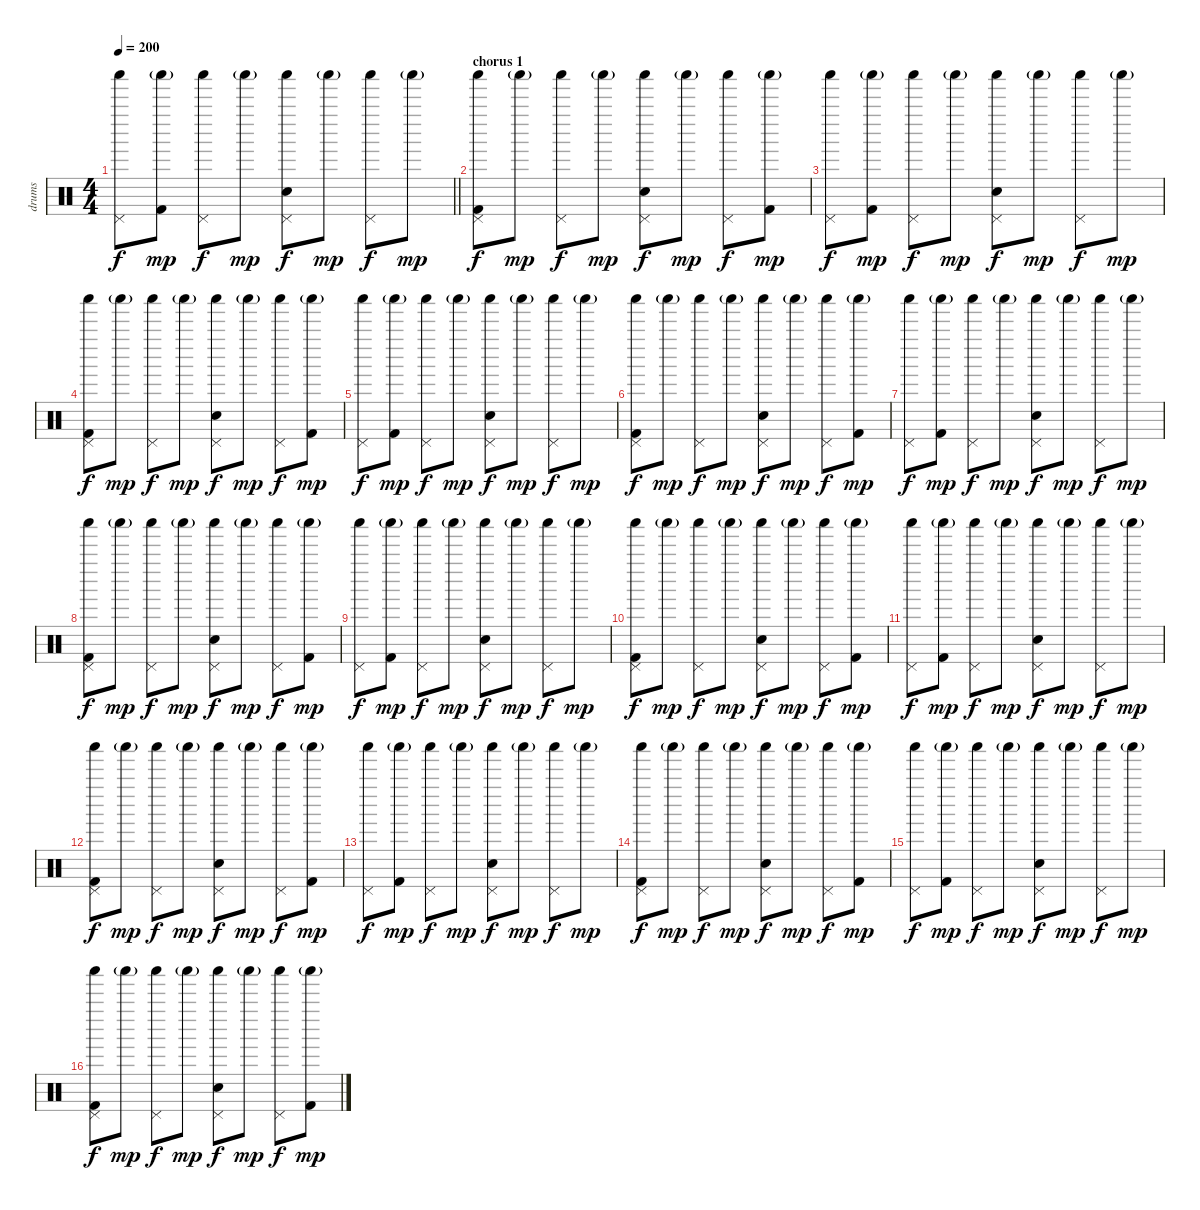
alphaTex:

\track ("drums" "drums") {instrument percussion}
\staff {score}
\articulation defaults
\ts (4 4)
\tempo 200
\clef neutral
\barLineRight lightlight
\ks c
("Shaker (hit)" "Pedal Hi-Hat (hit)").8{dy f} ("Kick (hit) 2" "Shaker (hit)"{g}).8{dy mp} ("Shaker (hit)" "Pedal Hi-Hat (hit)").8{dy f} "Shaker (hit)"{g}.8{dy mp} ("Electric Snare (hit)" "Shaker (hit)" "Pedal Hi-Hat (hit)").8{dy f} "Shaker (hit)"{g}.8{dy mp} ("Shaker (hit)" "Pedal Hi-Hat (hit)").8{dy f} "Shaker (hit)"{g}.8{dy mp} |
\section ("" "chorus 1")
("Kick (hit) 2" "Shaker (hit)" "Pedal Hi-Hat (hit)").8{dy f} "Shaker (hit)"{g}.8{dy mp} ("Shaker (hit)" "Pedal Hi-Hat (hit)").8{dy f} "Shaker (hit)"{g}.8{dy mp} ("Electric Snare (hit)" "Shaker (hit)" "Pedal Hi-Hat (hit)").8{dy f} "Shaker (hit)"{g}.8{dy mp} ("Shaker (hit)" "Pedal Hi-Hat (hit)").8{dy f} ("Kick (hit) 2" "Shaker (hit)"{g}).8{dy mp} |
("Shaker (hit)" "Pedal Hi-Hat (hit)").8{dy f} ("Kick (hit) 2" "Shaker (hit)"{g}).8{dy mp} ("Shaker (hit)" "Pedal Hi-Hat (hit)").8{dy f} "Shaker (hit)"{g}.8{dy mp} ("Electric Snare (hit)" "Shaker (hit)" "Pedal Hi-Hat (hit)").8{dy f} "Shaker (hit)"{g}.8{dy mp} ("Shaker (hit)" "Pedal Hi-Hat (hit)").8{dy f} "Shaker (hit)"{g}.8{dy mp} |
("Kick (hit) 2" "Shaker (hit)" "Pedal Hi-Hat (hit)").8{dy f} "Shaker (hit)"{g}.8{dy mp} ("Shaker (hit)" "Pedal Hi-Hat (hit)").8{dy f} "Shaker (hit)"{g}.8{dy mp} ("Electric Snare (hit)" "Shaker (hit)" "Pedal Hi-Hat (hit)").8{dy f} "Shaker (hit)"{g}.8{dy mp} ("Shaker (hit)" "Pedal Hi-Hat (hit)").8{dy f} ("Kick (hit) 2" "Shaker (hit)"{g}).8{dy mp} |
("Shaker (hit)" "Pedal Hi-Hat (hit)").8{dy f} ("Kick (hit) 2" "Shaker (hit)"{g}).8{dy mp} ("Shaker (hit)" "Pedal Hi-Hat (hit)").8{dy f} "Shaker (hit)"{g}.8{dy mp} ("Electric Snare (hit)" "Shaker (hit)" "Pedal Hi-Hat (hit)").8{dy f} "Shaker (hit)"{g}.8{dy mp} ("Shaker (hit)" "Pedal Hi-Hat (hit)").8{dy f} "Shaker (hit)"{g}.8{dy mp} |
("Kick (hit) 2" "Shaker (hit)" "Pedal Hi-Hat (hit)").8{dy f} "Shaker (hit)"{g}.8{dy mp} ("Shaker (hit)" "Pedal Hi-Hat (hit)").8{dy f} "Shaker (hit)"{g}.8{dy mp} ("Electric Snare (hit)" "Shaker (hit)" "Pedal Hi-Hat (hit)").8{dy f} "Shaker (hit)"{g}.8{dy mp} ("Shaker (hit)" "Pedal Hi-Hat (hit)").8{dy f} ("Kick (hit) 2" "Shaker (hit)"{g}).8{dy mp} |
("Shaker (hit)" "Pedal Hi-Hat (hit)").8{dy f} ("Kick (hit) 2" "Shaker (hit)"{g}).8{dy mp} ("Shaker (hit)" "Pedal Hi-Hat (hit)").8{dy f} "Shaker (hit)"{g}.8{dy mp} ("Electric Snare (hit)" "Shaker (hit)" "Pedal Hi-Hat (hit)").8{dy f} "Shaker (hit)"{g}.8{dy mp} ("Shaker (hit)" "Pedal Hi-Hat (hit)").8{dy f} "Shaker (hit)"{g}.8{dy mp} |
("Kick (hit) 2" "Shaker (hit)" "Pedal Hi-Hat (hit)").8{dy f} "Shaker (hit)"{g}.8{dy mp} ("Shaker (hit)" "Pedal Hi-Hat (hit)").8{dy f} "Shaker (hit)"{g}.8{dy mp} ("Electric Snare (hit)" "Shaker (hit)" "Pedal Hi-Hat (hit)").8{dy f} "Shaker (hit)"{g}.8{dy mp} ("Shaker (hit)" "Pedal Hi-Hat (hit)").8{dy f} ("Kick (hit) 2" "Shaker (hit)"{g}).8{dy mp} |
("Shaker (hit)" "Pedal Hi-Hat (hit)").8{dy f} ("Kick (hit) 2" "Shaker (hit)"{g}).8{dy mp} ("Shaker (hit)" "Pedal Hi-Hat (hit)").8{dy f} "Shaker (hit)"{g}.8{dy mp} ("Electric Snare (hit)" "Shaker (hit)" "Pedal Hi-Hat (hit)").8{dy f} "Shaker (hit)"{g}.8{dy mp} ("Shaker (hit)" "Pedal Hi-Hat (hit)").8{dy f} "Shaker (hit)"{g}.8{dy mp} |
("Kick (hit) 2" "Shaker (hit)" "Pedal Hi-Hat (hit)").8{dy f} "Shaker (hit)"{g}.8{dy mp} ("Shaker (hit)" "Pedal Hi-Hat (hit)").8{dy f} "Shaker (hit)"{g}.8{dy mp} ("Electric Snare (hit)" "Shaker (hit)" "Pedal Hi-Hat (hit)").8{dy f} "Shaker (hit)"{g}.8{dy mp} ("Shaker (hit)" "Pedal Hi-Hat (hit)").8{dy f} ("Kick (hit) 2" "Shaker (hit)"{g}).8{dy mp} |
("Shaker (hit)" "Pedal Hi-Hat (hit)").8{dy f} ("Kick (hit) 2" "Shaker (hit)"{g}).8{dy mp} ("Shaker (hit)" "Pedal Hi-Hat (hit)").8{dy f} "Shaker (hit)"{g}.8{dy mp} ("Electric Snare (hit)" "Shaker (hit)" "Pedal Hi-Hat (hit)").8{dy f} "Shaker (hit)"{g}.8{dy mp} ("Shaker (hit)" "Pedal Hi-Hat (hit)").8{dy f} "Shaker (hit)"{g}.8{dy mp} |
("Kick (hit) 2" "Shaker (hit)" "Pedal Hi-Hat (hit)").8{dy f} "Shaker (hit)"{g}.8{dy mp} ("Shaker (hit)" "Pedal Hi-Hat (hit)").8{dy f} "Shaker (hit)"{g}.8{dy mp} ("Electric Snare (hit)" "Shaker (hit)" "Pedal Hi-Hat (hit)").8{dy f} "Shaker (hit)"{g}.8{dy mp} ("Shaker (hit)" "Pedal Hi-Hat (hit)").8{dy f} ("Kick (hit) 2" "Shaker (hit)"{g}).8{dy mp} |
("Shaker (hit)" "Pedal Hi-Hat (hit)").8{dy f} ("Kick (hit) 2" "Shaker (hit)"{g}).8{dy mp} ("Shaker (hit)" "Pedal Hi-Hat (hit)").8{dy f} "Shaker (hit)"{g}.8{dy mp} ("Electric Snare (hit)" "Shaker (hit)" "Pedal Hi-Hat (hit)").8{dy f} "Shaker (hit)"{g}.8{dy mp} ("Shaker (hit)" "Pedal Hi-Hat (hit)").8{dy f} "Shaker (hit)"{g}.8{dy mp} |
("Kick (hit) 2" "Shaker (hit)" "Pedal Hi-Hat (hit)").8{dy f} "Shaker (hit)"{g}.8{dy mp} ("Shaker (hit)" "Pedal Hi-Hat (hit)").8{dy f} "Shaker (hit)"{g}.8{dy mp} ("Electric Snare (hit)" "Shaker (hit)" "Pedal Hi-Hat (hit)").8{dy f} "Shaker (hit)"{g}.8{dy mp} ("Shaker (hit)" "Pedal Hi-Hat (hit)").8{dy f} ("Kick (hit) 2" "Shaker (hit)"{g}).8{dy mp} |
("Shaker (hit)" "Pedal Hi-Hat (hit)").8{dy f} ("Kick (hit) 2" "Shaker (hit)"{g}).8{dy mp} ("Shaker (hit)" "Pedal Hi-Hat (hit)").8{dy f} "Shaker (hit)"{g}.8{dy mp} ("Electric Snare (hit)" "Shaker (hit)" "Pedal Hi-Hat (hit)").8{dy f} "Shaker (hit)"{g}.8{dy mp} ("Shaker (hit)" "Pedal Hi-Hat (hit)").8{dy f} "Shaker (hit)"{g}.8{dy mp} |
("Kick (hit) 2" "Shaker (hit)" "Pedal Hi-Hat (hit)").8{dy f} "Shaker (hit)"{g}.8{dy mp} ("Shaker (hit)" "Pedal Hi-Hat (hit)").8{dy f} "Shaker (hit)"{g}.8{dy mp} ("Electric Snare (hit)" "Shaker (hit)" "Pedal Hi-Hat (hit)").8{dy f} "Shaker (hit)"{g}.8{dy mp} ("Shaker (hit)" "Pedal Hi-Hat (hit)").8{dy f} ("Kick (hit) 2" "Shaker (hit)"{g}).8{dy mp}
